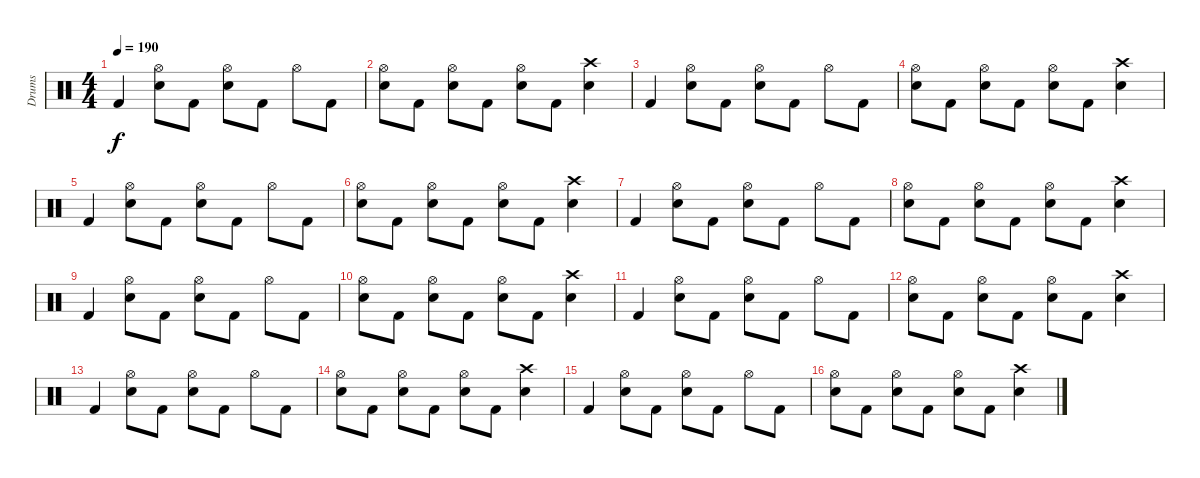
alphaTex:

\track ("Drums" "Drums") {instrument percussion}
\staff {score}
\articulation defaults
\ts (4 4)
\tempo 190
\clef neutral
\ks c "Kick (hit) 2".4{dy f}
("Hi-Hat (open)" "Snare (hit) 2").8 "Kick (hit) 2".8 ("Hi-Hat (open)" "Snare (hit) 2").8 "Kick (hit) 2".8 "Hi-Hat (open)".8 "Kick (hit) 2".8 |
("Hi-Hat (open)" "Snare (hit) 2").8 "Kick (hit) 2".8 ("Hi-Hat (open)" "Snare (hit) 2").8 "Kick (hit) 2".8 ("Hi-Hat (open)" "Snare (hit) 2").8 "Kick (hit) 2".8 ("Crash high (hit)" "Snare (hit) 2").4 |
"Kick (hit) 2".4 ("Hi-Hat (open)" "Snare (hit) 2").8 "Kick (hit) 2".8 ("Hi-Hat (open)" "Snare (hit) 2").8 "Kick (hit) 2".8 "Hi-Hat (open)".8 "Kick (hit) 2".8 |
("Hi-Hat (open)" "Snare (hit) 2").8 "Kick (hit) 2".8 ("Hi-Hat (open)" "Snare (hit) 2").8 "Kick (hit) 2".8 ("Hi-Hat (open)" "Snare (hit) 2").8 "Kick (hit) 2".8 ("Crash high (hit)" "Snare (hit) 2").4 |
"Kick (hit) 2".4 ("Hi-Hat (open)" "Snare (hit) 2").8 "Kick (hit) 2".8 ("Hi-Hat (open)" "Snare (hit) 2").8 "Kick (hit) 2".8 "Hi-Hat (open)".8 "Kick (hit) 2".8 |
("Hi-Hat (open)" "Snare (hit) 2").8 "Kick (hit) 2".8 ("Hi-Hat (open)" "Snare (hit) 2").8 "Kick (hit) 2".8 ("Hi-Hat (open)" "Snare (hit) 2").8 "Kick (hit) 2".8 ("Crash high (hit)" "Snare (hit) 2").4 |
"Kick (hit) 2".4 ("Hi-Hat (open)" "Snare (hit) 2").8 "Kick (hit) 2".8 ("Hi-Hat (open)" "Snare (hit) 2").8 "Kick (hit) 2".8 "Hi-Hat (open)".8 "Kick (hit) 2".8 |
("Hi-Hat (open)" "Snare (hit) 2").8 "Kick (hit) 2".8 ("Hi-Hat (open)" "Snare (hit) 2").8 "Kick (hit) 2".8 ("Hi-Hat (open)" "Snare (hit) 2").8 "Kick (hit) 2".8 ("Crash high (hit)" "Snare (hit) 2").4 |
"Kick (hit) 2".4 ("Hi-Hat (open)" "Snare (hit) 2").8 "Kick (hit) 2".8 ("Hi-Hat (open)" "Snare (hit) 2").8 "Kick (hit) 2".8 "Hi-Hat (open)".8 "Kick (hit) 2".8 |
("Hi-Hat (open)" "Snare (hit) 2").8 "Kick (hit) 2".8 ("Hi-Hat (open)" "Snare (hit) 2").8 "Kick (hit) 2".8 ("Hi-Hat (open)" "Snare (hit) 2").8 "Kick (hit) 2".8 ("Crash high (hit)" "Snare (hit) 2").4 |
"Kick (hit) 2".4 ("Hi-Hat (open)" "Snare (hit) 2").8 "Kick (hit) 2".8 ("Hi-Hat (open)" "Snare (hit) 2").8 "Kick (hit) 2".8 "Hi-Hat (open)".8 "Kick (hit) 2".8 |
("Hi-Hat (open)" "Snare (hit) 2").8 "Kick (hit) 2".8 ("Hi-Hat (open)" "Snare (hit) 2").8 "Kick (hit) 2".8 ("Hi-Hat (open)" "Snare (hit) 2").8 "Kick (hit) 2".8 ("Crash high (hit)" "Snare (hit) 2").4 |
"Kick (hit) 2".4 ("Hi-Hat (open)" "Snare (hit) 2").8 "Kick (hit) 2".8 ("Hi-Hat (open)" "Snare (hit) 2").8 "Kick (hit) 2".8 "Hi-Hat (open)".8 "Kick (hit) 2".8 |
("Hi-Hat (open)" "Snare (hit) 2").8 "Kick (hit) 2".8 ("Hi-Hat (open)" "Snare (hit) 2").8 "Kick (hit) 2".8 ("Hi-Hat (open)" "Snare (hit) 2").8 "Kick (hit) 2".8 ("Crash high (hit)" "Snare (hit) 2").4 |
"Kick (hit) 2".4 ("Hi-Hat (open)" "Snare (hit) 2").8 "Kick (hit) 2".8 ("Hi-Hat (open)" "Snare (hit) 2").8 "Kick (hit) 2".8 "Hi-Hat (open)".8 "Kick (hit) 2".8 |
("Hi-Hat (open)" "Snare (hit) 2").8 "Kick (hit) 2".8 ("Hi-Hat (open)" "Snare (hit) 2").8 "Kick (hit) 2".8 ("Hi-Hat (open)" "Snare (hit) 2").8 "Kick (hit) 2".8 ("Crash high (hit)" "Snare (hit) 2").4
